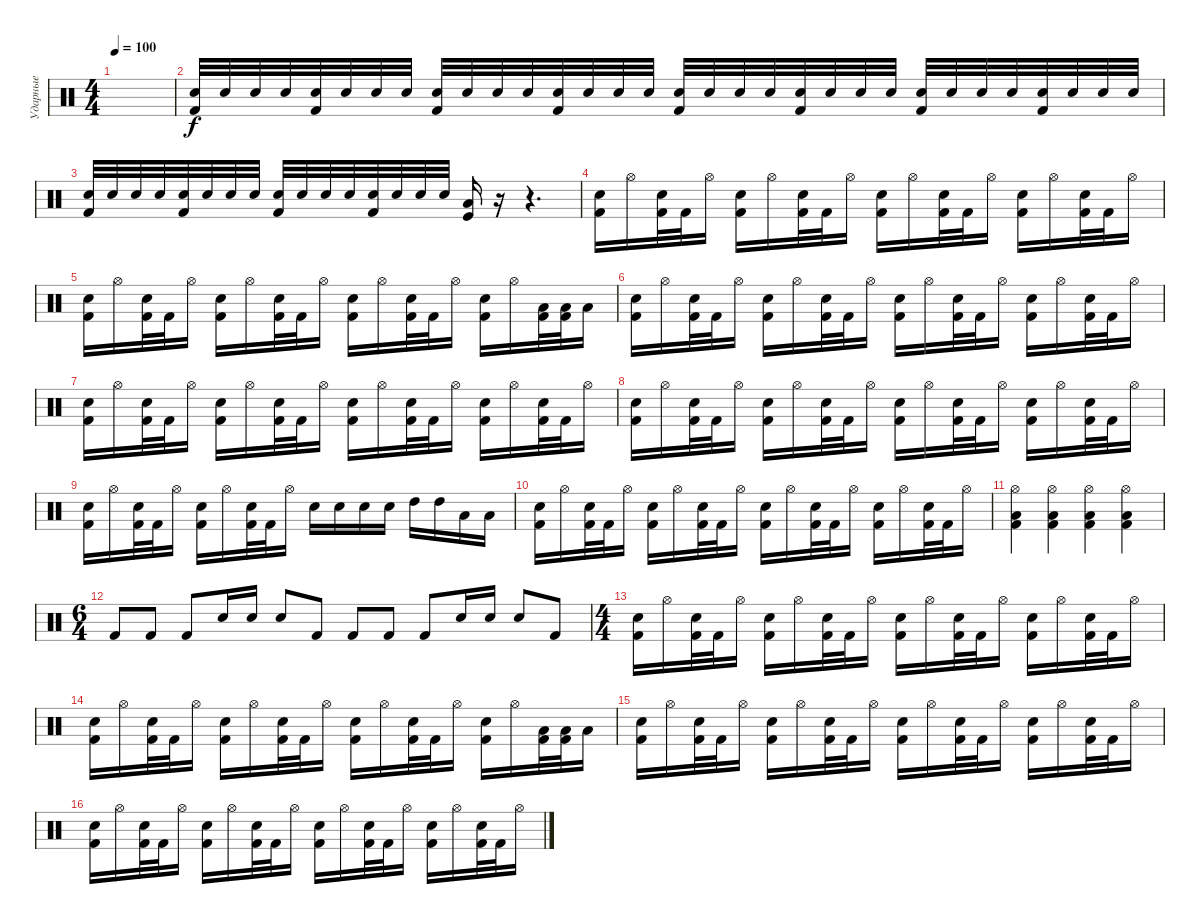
\track ("Ударные" "Ударные") {instrument percussion}
\staff {score}
\articulation defaults
\ts (4 4)
\tempo 100
\clef neutral
\ks c
|
("Snare (hit) 2" "Kick (hit) 2").32 "Snare (hit) 2".32 "Snare (hit) 2".32 "Snare (hit) 2".32 ("Snare (hit) 2" "Kick (hit) 2").32 "Snare (hit) 2".32 "Snare (hit) 2".32 "Snare (hit) 2".32 ("Snare (hit) 2" "Kick (hit) 2").32 "Snare (hit) 2".32 "Snare (hit) 2".32 "Snare (hit) 2".32 ("Snare (hit) 2" "Kick (hit) 2").32 "Snare (hit) 2".32 "Snare (hit) 2".32 "Snare (hit) 2".32 ("Snare (hit) 2" "Kick (hit) 2").32 "Snare (hit) 2".32 "Snare (hit) 2".32 "Snare (hit) 2".32 ("Snare (hit) 2" "Kick (hit) 2").32 "Snare (hit) 2".32 "Snare (hit) 2".32 "Snare (hit) 2".32 ("Snare (hit) 2" "Kick (hit) 2").32 "Snare (hit) 2".32 "Snare (hit) 2".32 "Snare (hit) 2".32 ("Snare (hit) 2" "Kick (hit) 2").32 "Snare (hit) 2".32 "Snare (hit) 2".32 "Snare (hit) 2".32 |
("Snare (hit) 2" "Kick (hit) 2").32 "Snare (hit) 2".32 "Snare (hit) 2".32 "Snare (hit) 2".32 ("Snare (hit) 2" "Kick (hit) 2").32 "Snare (hit) 2".32 "Snare (hit) 2".32 "Snare (hit) 2".32 ("Snare (hit) 2" "Kick (hit) 2").32 "Snare (hit) 2".32 "Snare (hit) 2".32 "Snare (hit) 2".32 ("Snare (hit) 2" "Kick (hit) 2").32 "Snare (hit) 2".32 "Snare (hit) 2".32 "Snare (hit) 2".32 ("Kick (hit)" "Low Floor Tom (hit)").16 r.16 r.4{d} |
("Snare (hit) 2" "Kick (hit) 2").16 "Hi-Hat (open)".16 ("Snare (hit) 2" "Kick (hit) 2").32 "Kick (hit) 2".32 "Hi-Hat (open)".16 ("Snare (hit) 2" "Kick (hit) 2").16 "Hi-Hat (open)".16 ("Snare (hit) 2" "Kick (hit) 2").32 "Kick (hit) 2".32 "Hi-Hat (open)".16 ("Snare (hit) 2" "Kick (hit) 2").16 "Hi-Hat (open)".16 ("Snare (hit) 2" "Kick (hit) 2").32 "Kick (hit) 2".32 "Hi-Hat (open)".16 ("Snare (hit) 2" "Kick (hit) 2").16 "Hi-Hat (open)".16 ("Snare (hit) 2" "Kick (hit) 2").32 "Kick (hit) 2".32 "Hi-Hat (open)".16 |
("Snare (hit) 2" "Kick (hit) 2").16 "Hi-Hat (open)".16 ("Snare (hit) 2" "Kick (hit) 2").32 "Kick (hit) 2".32 "Hi-Hat (open)".16 ("Snare (hit) 2" "Kick (hit) 2").16 "Hi-Hat (open)".16 ("Snare (hit) 2" "Kick (hit) 2").32 "Kick (hit) 2".32 "Hi-Hat (open)".16 ("Snare (hit) 2" "Kick (hit) 2").16 "Hi-Hat (open)".16 ("Snare (hit) 2" "Kick (hit) 2").32 "Kick (hit) 2".32 "Hi-Hat (open)".16 ("Snare (hit) 2" "Kick (hit) 2").16 "Hi-Hat (open)".16 ("Low Tom (hit)" "Kick (hit) 2").32 ("Low Tom (hit)" "Kick (hit) 2").32 "Low Tom (hit)".16 |
("Snare (hit) 2" "Kick (hit) 2").16 "Hi-Hat (open)".16 ("Snare (hit) 2" "Kick (hit) 2").32 "Kick (hit) 2".32 "Hi-Hat (open)".16 ("Snare (hit) 2" "Kick (hit) 2").16 "Hi-Hat (open)".16 ("Snare (hit) 2" "Kick (hit) 2").32 "Kick (hit) 2".32 "Hi-Hat (open)".16 ("Snare (hit) 2" "Kick (hit) 2").16 "Hi-Hat (open)".16 ("Snare (hit) 2" "Kick (hit) 2").32 "Kick (hit) 2".32 "Hi-Hat (open)".16 ("Snare (hit) 2" "Kick (hit) 2").16 "Hi-Hat (open)".16 ("Snare (hit) 2" "Kick (hit) 2").32 "Kick (hit) 2".32 "Hi-Hat (open)".16 |
("Snare (hit) 2" "Kick (hit) 2").16 "Hi-Hat (open)".16 ("Snare (hit) 2" "Kick (hit) 2").32 "Kick (hit) 2".32 "Hi-Hat (open)".16 ("Snare (hit) 2" "Kick (hit) 2").16 "Hi-Hat (open)".16 ("Snare (hit) 2" "Kick (hit) 2").32 "Kick (hit) 2".32 "Hi-Hat (open)".16 ("Snare (hit) 2" "Kick (hit) 2").16 "Hi-Hat (open)".16 ("Snare (hit) 2" "Kick (hit) 2").32 "Kick (hit) 2".32 "Hi-Hat (open)".16 ("Snare (hit) 2" "Kick (hit) 2").16 "Hi-Hat (open)".16 ("Snare (hit) 2" "Kick (hit) 2").32 "Kick (hit) 2".32 "Hi-Hat (open)".16 |
("Snare (hit) 2" "Kick (hit) 2").16 "Hi-Hat (open)".16 ("Snare (hit) 2" "Kick (hit) 2").32 "Kick (hit) 2".32 "Hi-Hat (open)".16 ("Snare (hit) 2" "Kick (hit) 2").16 "Hi-Hat (open)".16 ("Snare (hit) 2" "Kick (hit) 2").32 "Kick (hit) 2".32 "Hi-Hat (open)".16 ("Snare (hit) 2" "Kick (hit) 2").16 "Hi-Hat (open)".16 ("Snare (hit) 2" "Kick (hit) 2").32 "Kick (hit) 2".32 "Hi-Hat (open)".16 ("Snare (hit) 2" "Kick (hit) 2").16 "Hi-Hat (open)".16 ("Snare (hit) 2" "Kick (hit) 2").32 "Kick (hit) 2".32 "Hi-Hat (open)".16 |
("Snare (hit) 2" "Kick (hit) 2").16 "Hi-Hat (open)".16 ("Snare (hit) 2" "Kick (hit) 2").32 "Kick (hit) 2".32 "Hi-Hat (open)".16 ("Snare (hit) 2" "Kick (hit) 2").16 "Hi-Hat (open)".16 ("Snare (hit) 2" "Kick (hit) 2").32 "Kick (hit) 2".32 "Hi-Hat (open)".16 "Snare (hit) 2".16 "Snare (hit) 2".16 "Snare (hit) 2".16 "Snare (hit) 2".16 "High Tom (hit)".16 "High Tom (hit)".16 "Low Tom (hit)".16 "Low Tom (hit)".16 |
("Snare (hit) 2" "Kick (hit) 2").16 "Hi-Hat (open)".16 ("Snare (hit) 2" "Kick (hit) 2").32 "Kick (hit) 2".32 "Hi-Hat (open)".16 ("Snare (hit) 2" "Kick (hit) 2").16 "Hi-Hat (open)".16 ("Snare (hit) 2" "Kick (hit) 2").32 "Kick (hit) 2".32 "Hi-Hat (open)".16 ("Snare (hit) 2" "Kick (hit) 2").16 "Hi-Hat (open)".16 ("Snare (hit) 2" "Kick (hit) 2").32 "Kick (hit) 2".32 "Hi-Hat (open)".16 ("Snare (hit) 2" "Kick (hit) 2").16 "Hi-Hat (open)".16 ("Snare (hit) 2" "Kick (hit) 2").32 "Kick (hit) 2".32 "Hi-Hat (open)".16 |
("Hi-Hat (open)" "Low Floor Tom (hit)" "Kick (hit) 2").4 ("Hi-Hat (open)" "Low Floor Tom (hit)" "Kick (hit) 2").4 ("Hi-Hat (open)" "Low Floor Tom (hit)" "Kick (hit) 2").4 ("Hi-Hat (open)" "Low Floor Tom (hit)" "Kick (hit) 2").4 |
\ts (6 4)
"Kick (hit) 2".8 "Kick (hit) 2".8 "Kick (hit) 2".8 "Snare (hit) 2".16 "Snare (hit) 2".16 "Snare (hit) 2".8 "Kick (hit) 2".8 "Kick (hit) 2".8 "Kick (hit) 2".8 "Kick (hit) 2".8 "Snare (hit) 2".16 "Snare (hit) 2".16 "Snare (hit) 2".8 "Kick (hit) 2".8 |
\ts (4 4)
("Snare (hit) 2" "Kick (hit) 2").16 "Hi-Hat (open)".16 ("Snare (hit) 2" "Kick (hit) 2").32 "Kick (hit) 2".32 "Hi-Hat (open)".16 ("Snare (hit) 2" "Kick (hit) 2").16 "Hi-Hat (open)".16 ("Snare (hit) 2" "Kick (hit) 2").32 "Kick (hit) 2".32 "Hi-Hat (open)".16 ("Snare (hit) 2" "Kick (hit) 2").16 "Hi-Hat (open)".16 ("Snare (hit) 2" "Kick (hit) 2").32 "Kick (hit) 2".32 "Hi-Hat (open)".16 ("Snare (hit) 2" "Kick (hit) 2").16 "Hi-Hat (open)".16 ("Snare (hit) 2" "Kick (hit) 2").32 "Kick (hit) 2".32 "Hi-Hat (open)".16 |
("Snare (hit) 2" "Kick (hit) 2").16 "Hi-Hat (open)".16 ("Snare (hit) 2" "Kick (hit) 2").32 "Kick (hit) 2".32 "Hi-Hat (open)".16 ("Snare (hit) 2" "Kick (hit) 2").16 "Hi-Hat (open)".16 ("Snare (hit) 2" "Kick (hit) 2").32 "Kick (hit) 2".32 "Hi-Hat (open)".16 ("Snare (hit) 2" "Kick (hit) 2").16 "Hi-Hat (open)".16 ("Snare (hit) 2" "Kick (hit) 2").32 "Kick (hit) 2".32 "Hi-Hat (open)".16 ("Snare (hit) 2" "Kick (hit) 2").16 "Hi-Hat (open)".16 ("Low Tom (hit)" "Kick (hit) 2").32 ("Low Tom (hit)" "Kick (hit) 2").32 "Low Tom (hit)".16 |
("Snare (hit) 2" "Kick (hit) 2").16 "Hi-Hat (open)".16 ("Snare (hit) 2" "Kick (hit) 2").32 "Kick (hit) 2".32 "Hi-Hat (open)".16 ("Snare (hit) 2" "Kick (hit) 2").16 "Hi-Hat (open)".16 ("Snare (hit) 2" "Kick (hit) 2").32 "Kick (hit) 2".32 "Hi-Hat (open)".16 ("Snare (hit) 2" "Kick (hit) 2").16 "Hi-Hat (open)".16 ("Snare (hit) 2" "Kick (hit) 2").32 "Kick (hit) 2".32 "Hi-Hat (open)".16 ("Snare (hit) 2" "Kick (hit) 2").16 "Hi-Hat (open)".16 ("Snare (hit) 2" "Kick (hit) 2").32 "Kick (hit) 2".32 "Hi-Hat (open)".16 |
("Snare (hit) 2" "Kick (hit) 2").16 "Hi-Hat (open)".16 ("Snare (hit) 2" "Kick (hit) 2").32 "Kick (hit) 2".32 "Hi-Hat (open)".16 ("Snare (hit) 2" "Kick (hit) 2").16 "Hi-Hat (open)".16 ("Snare (hit) 2" "Kick (hit) 2").32 "Kick (hit) 2".32 "Hi-Hat (open)".16 ("Snare (hit) 2" "Kick (hit) 2").16 "Hi-Hat (open)".16 ("Snare (hit) 2" "Kick (hit) 2").32 "Kick (hit) 2".32 "Hi-Hat (open)".16 ("Snare (hit) 2" "Kick (hit) 2").16 "Hi-Hat (open)".16 ("Snare (hit) 2" "Kick (hit) 2").32 "Kick (hit) 2".32 "Hi-Hat (open)".16
